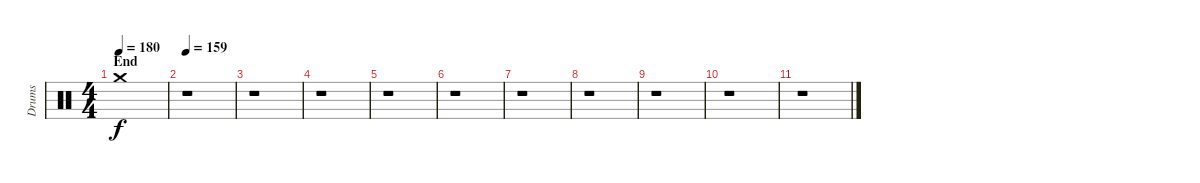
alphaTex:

\track ("Drums" "Drums") {instrument percussion}
\staff {score}
\articulation defaults
\ts (4 4)
\section ("" "End")
\tempo 180
\clef neutral
\ks c "Crash medium (hit)".1{dy f}
|
\tempo 159
r.1 |
r.1 |
r.1 |
r.1 |
r.1 |
r.1 |
r.1 |
r.1 |
r.1 |
r.1
